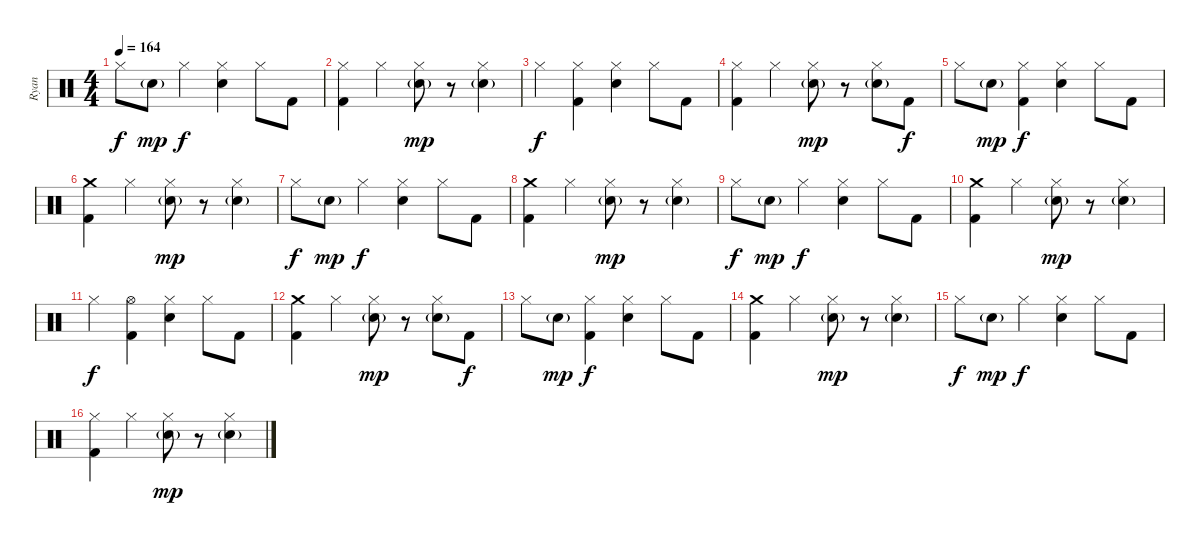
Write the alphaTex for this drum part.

\track ("Ryan" "Ryan") {instrument percussion}
\staff {score}
\articulation defaults
\ts (4 4)
\tempo 164
\clef neutral
\ks c "Hi-Hat (closed)".8{dy f} "Electric Snare (hit)"{g}.8{dy mp} "Hi-Hat (closed)".4{dy f}
("Hi-Hat (closed)" "Electric Snare (hit)").4 "Hi-Hat (closed)".8 "Kick (hit) 2".8 |
("Hi-Hat (closed)" "Kick (hit) 2").4 "Hi-Hat (closed)".4 ("Hi-Hat (closed)" "Electric Snare (hit)"{g}).8{dy mp} r.8 ("Hi-Hat (closed)" "Electric Snare (hit)"{g}).4 |
"Hi-Hat (closed)".4{dy f} ("Hi-Hat (closed)" "Kick (hit) 2").4 ("Hi-Hat (closed)" "Electric Snare (hit)").4 "Hi-Hat (closed)".8 "Kick (hit) 2".8 |
("Hi-Hat (closed)" "Kick (hit) 2").4 "Hi-Hat (closed)".4 ("Hi-Hat (closed)" "Electric Snare (hit)"{g}).8{dy mp} r.8 ("Hi-Hat (closed)" "Electric Snare (hit)"{g}).8 "Kick (hit) 2".8{dy f} |
"Hi-Hat (closed)".8 "Electric Snare (hit)"{g}.8{dy mp} ("Hi-Hat (closed)" "Kick (hit) 2").4{dy f} ("Hi-Hat (closed)" "Electric Snare (hit)").4 "Hi-Hat (closed)".8 "Kick (hit) 2".8 |
("Crash medium (hit)" "Kick (hit) 2").4 "Hi-Hat (closed)".4 ("Hi-Hat (closed)" "Electric Snare (hit)"{g}).8{dy mp} r.8 ("Hi-Hat (closed)" "Electric Snare (hit)"{g}).4 |
"Hi-Hat (closed)".8{dy f} "Electric Snare (hit)"{g}.8{dy mp} "Hi-Hat (closed)".4{dy f} ("Hi-Hat (closed)" "Electric Snare (hit)").4 "Hi-Hat (closed)".8 "Kick (hit) 2".8 |
("Crash medium (hit)" "Kick (hit) 2").4 "Hi-Hat (closed)".4 ("Hi-Hat (closed)" "Electric Snare (hit)"{g}).8{dy mp} r.8 ("Hi-Hat (closed)" "Electric Snare (hit)"{g}).4 |
"Hi-Hat (closed)".8{dy f} "Electric Snare (hit)"{g}.8{dy mp} "Hi-Hat (closed)".4{dy f} ("Hi-Hat (closed)" "Electric Snare (hit)").4 "Hi-Hat (closed)".8 "Kick (hit) 2".8 |
("Crash medium (hit)" "Kick (hit) 2").4 "Hi-Hat (closed)".4 ("Hi-Hat (closed)" "Electric Snare (hit)"{g}).8{dy mp} r.8 ("Hi-Hat (closed)" "Electric Snare (hit)"{g}).4 |
"Hi-Hat (closed)".4{dy f} ("Hi-Hat (open)" "Kick (hit) 2").4 ("Hi-Hat (closed)" "Electric Snare (hit)").4 "Hi-Hat (closed)".8 "Kick (hit) 2".8 |
("Crash medium (hit)" "Kick (hit) 2").4 "Hi-Hat (closed)".4 ("Hi-Hat (closed)" "Electric Snare (hit)"{g}).8{dy mp} r.8 ("Hi-Hat (closed)" "Electric Snare (hit)"{g}).8 "Kick (hit) 2".8{dy f} |
"Hi-Hat (closed)".8 "Electric Snare (hit)"{g}.8{dy mp} ("Hi-Hat (closed)" "Kick (hit) 2").4{dy f} ("Hi-Hat (closed)" "Electric Snare (hit)").4 "Hi-Hat (closed)".8 "Kick (hit) 2".8 |
("Crash medium (hit)" "Kick (hit) 2").4 "Hi-Hat (closed)".4 ("Hi-Hat (closed)" "Electric Snare (hit)"{g}).8{dy mp} r.8 ("Hi-Hat (closed)" "Electric Snare (hit)"{g}).4 |
"Hi-Hat (closed)".8{dy f} "Electric Snare (hit)"{g}.8{dy mp} "Hi-Hat (closed)".4{dy f} ("Hi-Hat (closed)" "Electric Snare (hit)").4 "Hi-Hat (closed)".8 "Kick (hit) 2".8 |
("Hi-Hat (closed)" "Kick (hit) 2").4 "Hi-Hat (closed)".4 ("Hi-Hat (closed)" "Electric Snare (hit)"{g}).8{dy mp} r.8 ("Hi-Hat (closed)" "Electric Snare (hit)"{g}).4
